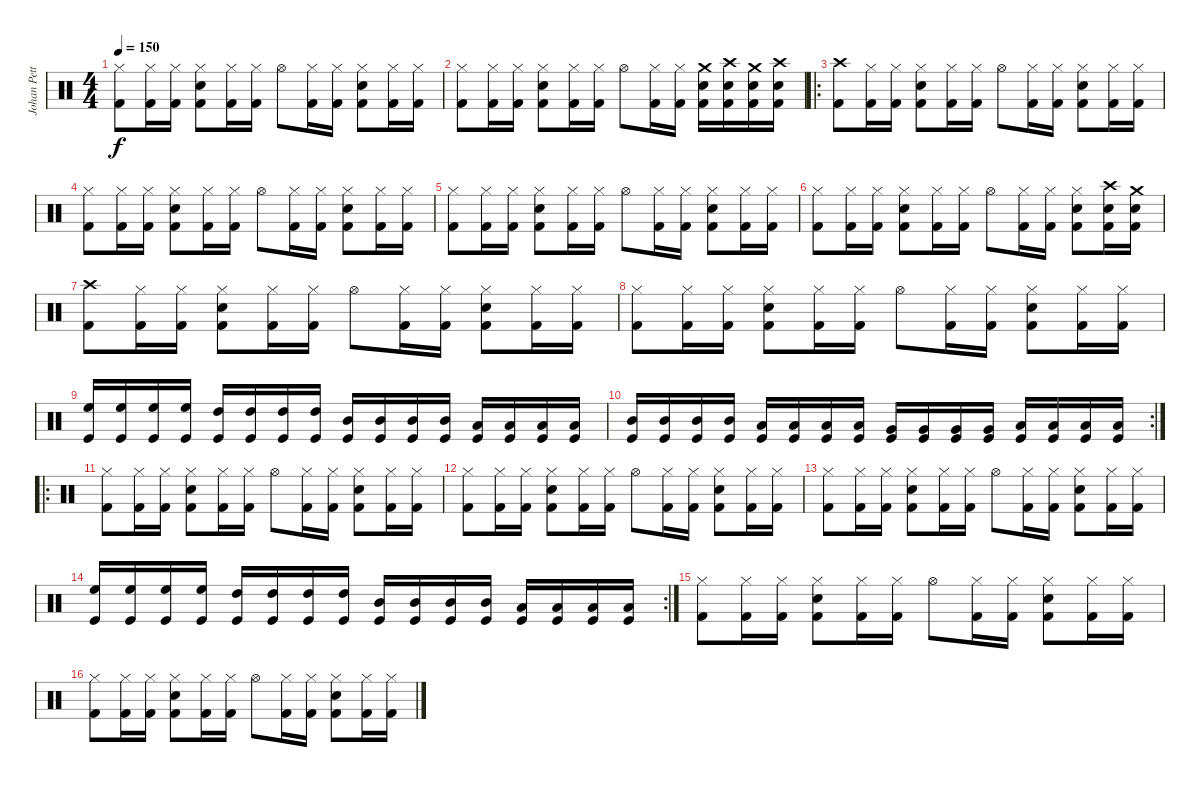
\track ("Johan Petterson" "Johan Pett") {instrument percussion}
\staff {score}
\articulation defaults
\ts (4 4)
\tempo 150
\clef neutral
\ks c
("Hi-Hat (closed)" "Kick (hit) 2").8{dy f} ("Hi-Hat (closed)" "Kick (hit) 2").16 ("Hi-Hat (closed)" "Kick (hit) 2").16 ("Hi-Hat (closed)" "Snare (hit) 2" "Kick (hit) 2").8 ("Hi-Hat (closed)" "Kick (hit) 2").16 ("Hi-Hat (closed)" "Kick (hit) 2").16 "Hi-Hat (open)".8 ("Hi-Hat (closed)" "Kick (hit) 2").16 ("Hi-Hat (closed)" "Kick (hit) 2").16 ("Hi-Hat (closed)" "Snare (hit) 2" "Kick (hit) 2").8 ("Hi-Hat (closed)" "Kick (hit) 2").16 ("Hi-Hat (closed)" "Kick (hit) 2").16 |
("Hi-Hat (closed)" "Kick (hit) 2").8 ("Hi-Hat (closed)" "Kick (hit) 2").16 ("Hi-Hat (closed)" "Kick (hit) 2").16 ("Hi-Hat (closed)" "Snare (hit) 2" "Kick (hit) 2").8 ("Hi-Hat (closed)" "Kick (hit) 2").16 ("Hi-Hat (closed)" "Kick (hit) 2").16 "Hi-Hat (open)".8 ("Hi-Hat (closed)" "Kick (hit) 2").16 ("Hi-Hat (closed)" "Kick (hit) 2").16 ("Crash medium (hit)" "Snare (hit) 2" "Kick (hit) 2").16 ("Crash high (hit)" "Snare (hit) 2" "Kick (hit) 2").16 ("Crash medium (hit)" "Snare (hit) 2" "Kick (hit) 2").16 ("Crash high (hit)" "Snare (hit) 2" "Kick (hit) 2").16 |
\ro
("Crash high (hit)" "Kick (hit) 2").8 ("Hi-Hat (closed)" "Kick (hit) 2").16 ("Hi-Hat (closed)" "Kick (hit) 2").16 ("Hi-Hat (closed)" "Snare (hit) 2" "Kick (hit) 2").8 ("Hi-Hat (closed)" "Kick (hit) 2").16 ("Hi-Hat (closed)" "Kick (hit) 2").16 "Hi-Hat (open)".8 ("Hi-Hat (closed)" "Kick (hit) 2").16 ("Hi-Hat (closed)" "Kick (hit) 2").16 ("Hi-Hat (closed)" "Snare (hit) 2" "Kick (hit) 2").8 ("Hi-Hat (closed)" "Kick (hit) 2").16 ("Hi-Hat (closed)" "Kick (hit) 2").16 |
("Hi-Hat (closed)" "Kick (hit) 2").8 ("Hi-Hat (closed)" "Kick (hit) 2").16 ("Hi-Hat (closed)" "Kick (hit) 2").16 ("Hi-Hat (closed)" "Snare (hit) 2" "Kick (hit) 2").8 ("Hi-Hat (closed)" "Kick (hit) 2").16 ("Hi-Hat (closed)" "Kick (hit) 2").16 "Hi-Hat (open)".8 ("Hi-Hat (closed)" "Kick (hit) 2").16 ("Hi-Hat (closed)" "Kick (hit) 2").16 ("Hi-Hat (closed)" "Snare (hit) 2" "Kick (hit) 2").8 ("Hi-Hat (closed)" "Kick (hit) 2").16 ("Hi-Hat (closed)" "Kick (hit) 2").16 |
("Hi-Hat (closed)" "Kick (hit) 2").8 ("Hi-Hat (closed)" "Kick (hit) 2").16 ("Hi-Hat (closed)" "Kick (hit) 2").16 ("Hi-Hat (closed)" "Snare (hit) 2" "Kick (hit) 2").8 ("Hi-Hat (closed)" "Kick (hit) 2").16 ("Hi-Hat (closed)" "Kick (hit) 2").16 "Hi-Hat (open)".8 ("Hi-Hat (closed)" "Kick (hit) 2").16 ("Hi-Hat (closed)" "Kick (hit) 2").16 ("Hi-Hat (closed)" "Snare (hit) 2" "Kick (hit) 2").8 ("Hi-Hat (closed)" "Kick (hit) 2").16 ("Hi-Hat (closed)" "Kick (hit) 2").16 |
("Hi-Hat (closed)" "Kick (hit) 2").8 ("Hi-Hat (closed)" "Kick (hit) 2").16 ("Hi-Hat (closed)" "Kick (hit) 2").16 ("Hi-Hat (closed)" "Snare (hit) 2" "Kick (hit) 2").8 ("Hi-Hat (closed)" "Kick (hit) 2").16 ("Hi-Hat (closed)" "Kick (hit) 2").16 "Hi-Hat (open)".8 ("Hi-Hat (closed)" "Kick (hit) 2").16 ("Hi-Hat (closed)" "Kick (hit) 2").16 ("Hi-Hat (closed)" "Snare (hit) 2" "Kick (hit) 2").8 ("Crash high (hit)" "Snare (hit) 2" "Kick (hit) 2").16 ("Crash medium (hit)" "Snare (hit) 2" "Kick (hit) 2").16 |
("Crash high (hit)" "Kick (hit) 2").8 ("Hi-Hat (closed)" "Kick (hit) 2").16 ("Hi-Hat (closed)" "Kick (hit) 2").16 ("Hi-Hat (closed)" "Snare (hit) 2" "Kick (hit) 2").8 ("Hi-Hat (closed)" "Kick (hit) 2").16 ("Hi-Hat (closed)" "Kick (hit) 2").16 "Hi-Hat (open)".8 ("Hi-Hat (closed)" "Kick (hit) 2").16 ("Hi-Hat (closed)" "Kick (hit) 2").16 ("Hi-Hat (closed)" "Snare (hit) 2" "Kick (hit) 2").8 ("Hi-Hat (closed)" "Kick (hit) 2").16 ("Hi-Hat (closed)" "Kick (hit) 2").16 |
("Hi-Hat (closed)" "Kick (hit) 2").8 ("Hi-Hat (closed)" "Kick (hit) 2").16 ("Hi-Hat (closed)" "Kick (hit) 2").16 ("Hi-Hat (closed)" "Snare (hit) 2" "Kick (hit) 2").8 ("Hi-Hat (closed)" "Kick (hit) 2").16 ("Hi-Hat (closed)" "Kick (hit) 2").16 "Hi-Hat (open)".8 ("Hi-Hat (closed)" "Kick (hit) 2").16 ("Hi-Hat (closed)" "Kick (hit) 2").16 ("Hi-Hat (closed)" "Snare (hit) 2" "Kick (hit) 2").8 ("Hi-Hat (closed)" "Kick (hit) 2").16 ("Hi-Hat (closed)" "Kick (hit) 2").16 |
("Kick (hit)" "High Floor Tom (hit)").16 ("Kick (hit)" "High Floor Tom (hit)").16 ("Kick (hit)" "High Floor Tom (hit)").16 ("Kick (hit)" "High Floor Tom (hit)").16 ("Kick (hit)" "High Tom (hit)").16 ("Kick (hit)" "High Tom (hit)").16 ("Kick (hit)" "High Tom (hit)").16 ("Kick (hit)" "High Tom (hit)").16 ("Kick (hit)" "Mid Tom (hit)").16 ("Kick (hit)" "Mid Tom (hit)").16 ("Kick (hit)" "Mid Tom (hit)").16 ("Kick (hit)" "Mid Tom (hit)").16 ("Kick (hit)" "Low Tom (hit)").16 ("Kick (hit)" "Low Tom (hit)").16 ("Kick (hit)" "Low Tom (hit)").16 ("Kick (hit)" "Low Tom (hit)").16 |
\rc 2
("Kick (hit)" "Mid Tom (hit)").16 ("Kick (hit)" "Mid Tom (hit)").16 ("Kick (hit)" "Mid Tom (hit)").16 ("Kick (hit)" "Mid Tom (hit)").16 ("Kick (hit)" "Low Tom (hit)").16 ("Kick (hit)" "Low Tom (hit)").16 ("Kick (hit)" "Low Tom (hit)").16 ("Kick (hit)" "Low Tom (hit)").16 ("Kick (hit)" "Very Low Tom (hit)").16 ("Kick (hit)" "Very Low Tom (hit)").16 ("Kick (hit)" "Very Low Tom (hit)").16 ("Kick (hit)" "Very Low Tom (hit)").16 ("Kick (hit)" "Low Floor Tom (hit)").16 ("Kick (hit)" "Low Floor Tom (hit)").16 ("Kick (hit)" "Low Floor Tom (hit)").16 ("Kick (hit)" "Low Floor Tom (hit)").16 |
\ro
("Hi-Hat (closed)" "Kick (hit) 2").8 ("Hi-Hat (closed)" "Kick (hit) 2").16 ("Hi-Hat (closed)" "Kick (hit) 2").16 ("Hi-Hat (closed)" "Snare (hit) 2" "Kick (hit) 2").8 ("Hi-Hat (closed)" "Kick (hit) 2").16 ("Hi-Hat (closed)" "Kick (hit) 2").16 "Hi-Hat (open)".8 ("Hi-Hat (closed)" "Kick (hit) 2").16 ("Hi-Hat (closed)" "Kick (hit) 2").16 ("Hi-Hat (closed)" "Snare (hit) 2" "Kick (hit) 2").8 ("Hi-Hat (closed)" "Kick (hit) 2").16 ("Hi-Hat (closed)" "Kick (hit) 2").16 |
("Hi-Hat (closed)" "Kick (hit) 2").8 ("Hi-Hat (closed)" "Kick (hit) 2").16 ("Hi-Hat (closed)" "Kick (hit) 2").16 ("Hi-Hat (closed)" "Snare (hit) 2" "Kick (hit) 2").8 ("Hi-Hat (closed)" "Kick (hit) 2").16 ("Hi-Hat (closed)" "Kick (hit) 2").16 "Hi-Hat (open)".8 ("Hi-Hat (closed)" "Kick (hit) 2").16 ("Hi-Hat (closed)" "Kick (hit) 2").16 ("Hi-Hat (closed)" "Snare (hit) 2" "Kick (hit) 2").8 ("Hi-Hat (closed)" "Kick (hit) 2").16 ("Hi-Hat (closed)" "Kick (hit) 2").16 |
("Hi-Hat (closed)" "Kick (hit) 2").8 ("Hi-Hat (closed)" "Kick (hit) 2").16 ("Hi-Hat (closed)" "Kick (hit) 2").16 ("Hi-Hat (closed)" "Snare (hit) 2" "Kick (hit) 2").8 ("Hi-Hat (closed)" "Kick (hit) 2").16 ("Hi-Hat (closed)" "Kick (hit) 2").16 "Hi-Hat (open)".8 ("Hi-Hat (closed)" "Kick (hit) 2").16 ("Hi-Hat (closed)" "Kick (hit) 2").16 ("Hi-Hat (closed)" "Snare (hit) 2" "Kick (hit) 2").8 ("Hi-Hat (closed)" "Kick (hit) 2").16 ("Hi-Hat (closed)" "Kick (hit) 2").16 |
\rc 2
("Kick (hit)" "High Floor Tom (hit)").16 ("Kick (hit)" "High Floor Tom (hit)").16 ("Kick (hit)" "High Floor Tom (hit)").16 ("Kick (hit)" "High Floor Tom (hit)").16 ("Kick (hit)" "High Tom (hit)").16 ("Kick (hit)" "High Tom (hit)").16 ("Kick (hit)" "High Tom (hit)").16 ("Kick (hit)" "High Tom (hit)").16 ("Kick (hit)" "Mid Tom (hit)").16 ("Kick (hit)" "Mid Tom (hit)").16 ("Kick (hit)" "Mid Tom (hit)").16 ("Kick (hit)" "Mid Tom (hit)").16 ("Kick (hit)" "Low Tom (hit)").16 ("Kick (hit)" "Low Tom (hit)").16 ("Kick (hit)" "Low Tom (hit)").16 ("Kick (hit)" "Low Tom (hit)").16 |
("Hi-Hat (closed)" "Kick (hit) 2").8 ("Hi-Hat (closed)" "Kick (hit) 2").16 ("Hi-Hat (closed)" "Kick (hit) 2").16 ("Hi-Hat (closed)" "Snare (hit) 2" "Kick (hit) 2").8 ("Hi-Hat (closed)" "Kick (hit) 2").16 ("Hi-Hat (closed)" "Kick (hit) 2").16 "Hi-Hat (open)".8 ("Hi-Hat (closed)" "Kick (hit) 2").16 ("Hi-Hat (closed)" "Kick (hit) 2").16 ("Hi-Hat (closed)" "Snare (hit) 2" "Kick (hit) 2").8 ("Hi-Hat (closed)" "Kick (hit) 2").16 ("Hi-Hat (closed)" "Kick (hit) 2").16 |
("Hi-Hat (closed)" "Kick (hit) 2").8 ("Hi-Hat (closed)" "Kick (hit) 2").16 ("Hi-Hat (closed)" "Kick (hit) 2").16 ("Hi-Hat (closed)" "Snare (hit) 2" "Kick (hit) 2").8 ("Hi-Hat (closed)" "Kick (hit) 2").16 ("Hi-Hat (closed)" "Kick (hit) 2").16 "Hi-Hat (open)".8 ("Hi-Hat (closed)" "Kick (hit) 2").16 ("Hi-Hat (closed)" "Kick (hit) 2").16 ("Hi-Hat (closed)" "Snare (hit) 2" "Kick (hit) 2").8 ("Hi-Hat (closed)" "Kick (hit) 2").16 ("Hi-Hat (closed)" "Kick (hit) 2").16
